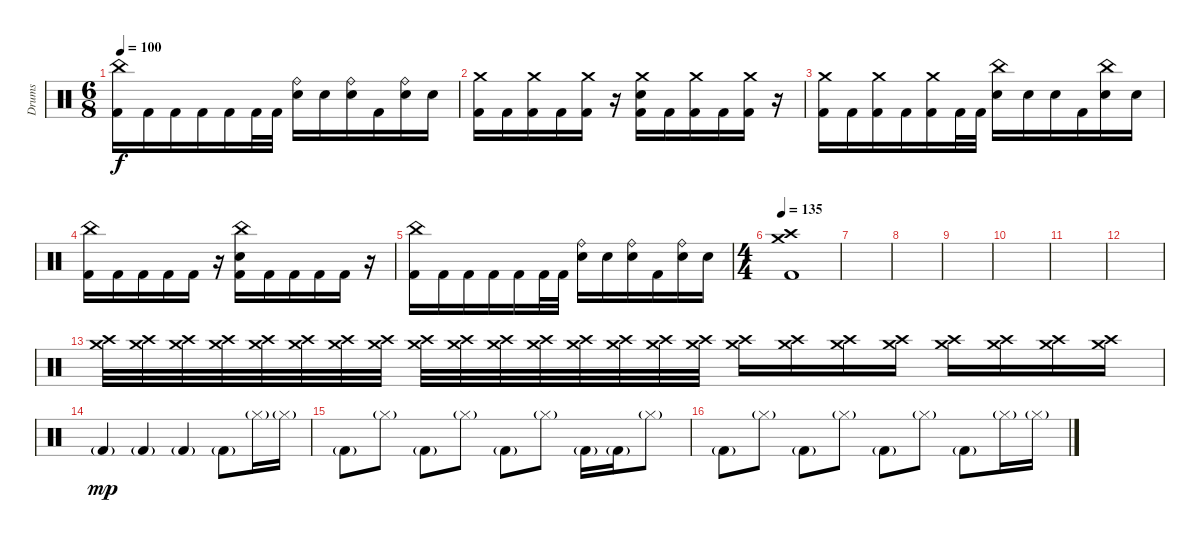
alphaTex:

\track ("Drums" "Drums") {instrument percussion}
\staff {score}
\articulation defaults
\ts (6 8)
\tempo 100
\clef neutral
\ks c
("China (hit)" "Kick (hit) 2").16{dy f} "Kick (hit) 2".16 "Kick (hit) 2".16 "Kick (hit) 2".16 "Kick (hit) 2".16 "Kick (hit) 2".32 "Kick (hit) 2".32 ("Ride (bell)" "Electric Snare (hit)").16 "Electric Snare (hit)".16 ("Ride (bell)" "Electric Snare (hit)").16 "Kick (hit) 2".16 ("Ride (bell)" "Electric Snare (hit)").16 "Electric Snare (hit)".16 |
("Crash medium (hit)" "Kick (hit) 2").16 "Kick (hit) 2".16 ("Crash medium (hit)" "Kick (hit) 2").16 "Kick (hit) 2".16 ("Crash medium (hit)" "Kick (hit) 2").16 r.16 ("Crash medium (hit)" "Electric Snare (hit)" "Kick (hit) 2").16 "Kick (hit) 2".16 ("Crash medium (hit)" "Kick (hit) 2").16 "Kick (hit) 2".16 ("Crash medium (hit)" "Kick (hit) 2").16 r.16 |
("Crash medium (hit)" "Kick (hit) 2").16 "Kick (hit) 2".16 ("Crash medium (hit)" "Kick (hit) 2").16 "Kick (hit) 2".16 ("Crash medium (hit)" "Kick (hit) 2").16 "Kick (hit) 2".32 "Kick (hit) 2".32 ("China (hit)" "Electric Snare (hit)").16 "Electric Snare (hit)".16 "Electric Snare (hit)".16 "Kick (hit) 2".16 ("China (hit)" "Electric Snare (hit)").16 "Electric Snare (hit)".16 |
("China (hit)" "Kick (hit) 2").16 "Kick (hit) 2".16 "Kick (hit) 2".16 "Kick (hit) 2".16 "Kick (hit) 2".16 r.16 ("China (hit)" "Electric Snare (hit)" "Kick (hit) 2").16 "Kick (hit) 2".16 "Kick (hit) 2".16 "Kick (hit) 2".16 "Kick (hit) 2".16 r.16 |
("China (hit)" "Kick (hit) 2").16 "Kick (hit) 2".16 "Kick (hit) 2".16 "Kick (hit) 2".16 "Kick (hit) 2".16 "Kick (hit) 2".32 "Kick (hit) 2".32 ("Ride (bell)" "Electric Snare (hit)").16 "Electric Snare (hit)".16 ("Ride (bell)" "Electric Snare (hit)").16 "Kick (hit) 2".16 ("Ride (bell)" "Electric Snare (hit)").16 "Electric Snare (hit)".16 |
\ts (4 4)
\tempo 135
("Crash medium (hit)" "Crash high (hit)" "Kick (hit) 2").1 |
|
|
|
|
|
|
("Crash high (hit)" "Crash medium (hit)").32 ("Crash high (hit)" "Crash medium (hit)").32 ("Crash high (hit)" "Crash medium (hit)").32 ("Crash high (hit)" "Crash medium (hit)").32 ("Crash high (hit)" "Crash medium (hit)").32 ("Crash high (hit)" "Crash medium (hit)").32 ("Crash high (hit)" "Crash medium (hit)").32 ("Crash high (hit)" "Crash medium (hit)").32 ("Crash high (hit)" "Crash medium (hit)").32 ("Crash high (hit)" "Crash medium (hit)").32 ("Crash high (hit)" "Crash medium (hit)").32 ("Crash high (hit)" "Crash medium (hit)").32 ("Crash high (hit)" "Crash medium (hit)").32 ("Crash high (hit)" "Crash medium (hit)").32 ("Crash high (hit)" "Crash medium (hit)").32 ("Crash high (hit)" "Crash medium (hit)").32 ("Crash high (hit)" "Crash medium (hit)").16 ("Crash high (hit)" "Crash medium (hit)").16 ("Crash high (hit)" "Crash medium (hit)").16 ("Crash high (hit)" "Crash medium (hit)").16 ("Crash high (hit)" "Crash medium (hit)").16 ("Crash high (hit)" "Crash medium (hit)").16 ("Crash high (hit)" "Crash medium (hit)").16 ("Crash high (hit)" "Crash medium (hit)").16 |
"Kick (hit) 2"{g}.4{dy mp volume 16} "Kick (hit) 2"{g}.4 "Kick (hit) 2"{g}.4 "Kick (hit) 2"{g}.8 "Hi-Hat (closed)"{g}.16 "Hi-Hat (closed)"{g}.16 |
"Kick (hit) 2"{g}.8 "Hi-Hat (closed)"{g}.8 "Kick (hit) 2"{g}.8 "Hi-Hat (closed)"{g}.8 "Kick (hit) 2"{g}.8 "Hi-Hat (closed)"{g}.8 "Kick (hit) 2"{g}.16 "Kick (hit) 2"{g}.16 "Hi-Hat (closed)"{g}.8 |
"Kick (hit) 2"{g}.8 "Hi-Hat (closed)"{g}.8 "Kick (hit) 2"{g}.8 "Hi-Hat (closed)"{g}.8 "Kick (hit) 2"{g}.8 "Hi-Hat (closed)"{g}.8 "Kick (hit) 2"{g}.8 "Hi-Hat (closed)"{g}.16 "Hi-Hat (closed)"{g}.16
